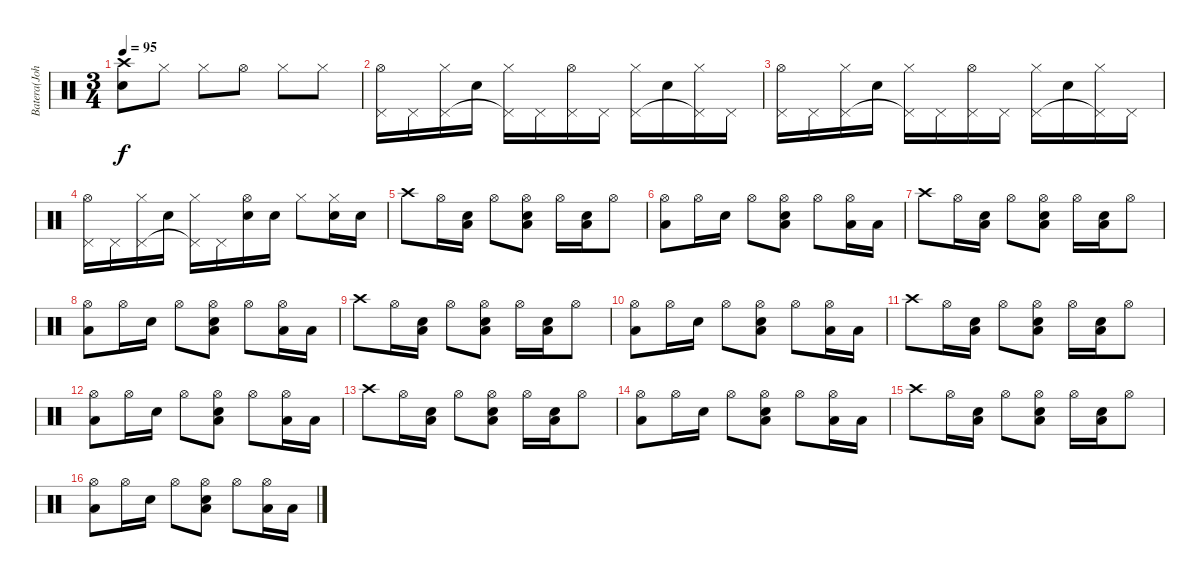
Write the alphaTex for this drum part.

\track ("Batera(John)" "Batera(Joh") {instrument percussion}
\staff {score}
\articulation defaults
\ts (3 4)
\tempo 95
\clef neutral
\ks c
("Crash high (hit)" "Snare (hit) 2").8{dy f} "Hi-Hat (closed)".8 "Hi-Hat (closed)".8 "Hi-Hat (open)".8 "Hi-Hat (closed)".8 "Hi-Hat (closed)".8 |
("Hi-Hat (open)" "Pedal Hi-Hat (hit)").16 "Pedal Hi-Hat (hit)".16 ("Hi-Hat (closed)" "Pedal Hi-Hat (hit)").16 "Snare (hit) 2".16 ("Hi-Hat (closed)" "Pedal Hi-Hat (hit)"{t}).16 "Pedal Hi-Hat (hit)".16 ("Hi-Hat (open)" "Pedal Hi-Hat (hit)").16 "Pedal Hi-Hat (hit)".16 ("Hi-Hat (closed)" "Pedal Hi-Hat (hit)").16 "Snare (hit) 2".16 ("Hi-Hat (closed)" "Pedal Hi-Hat (hit)"{t}).16 "Pedal Hi-Hat (hit)".16 |
("Hi-Hat (open)" "Pedal Hi-Hat (hit)").16 "Pedal Hi-Hat (hit)".16 ("Hi-Hat (closed)" "Pedal Hi-Hat (hit)").16 "Snare (hit) 2".16 ("Hi-Hat (closed)" "Pedal Hi-Hat (hit)"{t}).16 "Pedal Hi-Hat (hit)".16 ("Hi-Hat (open)" "Pedal Hi-Hat (hit)").16 "Pedal Hi-Hat (hit)".16 ("Hi-Hat (closed)" "Pedal Hi-Hat (hit)").16 "Snare (hit) 2".16 ("Hi-Hat (closed)" "Pedal Hi-Hat (hit)"{t}).16 "Pedal Hi-Hat (hit)".16 |
("Hi-Hat (open)" "Pedal Hi-Hat (hit)").16 "Pedal Hi-Hat (hit)".16 ("Hi-Hat (closed)" "Pedal Hi-Hat (hit)").16 "Snare (hit) 2".16 ("Hi-Hat (closed)" "Pedal Hi-Hat (hit)"{t}).16 "Pedal Hi-Hat (hit)".16 ("Hi-Hat (open)" "Snare (hit) 2").16 "Snare (hit) 2".16 "Hi-Hat (closed)".8 ("Hi-Hat (closed)" "Snare (hit) 2").16 "Snare (hit) 2".16 |
"Crash high (hit)".8 "Hi-Hat (open)".16 ("Snare (hit) 2" "Low Tom (hit)").16 "Hi-Hat (open)".8 ("Hi-Hat (open)" "Snare (hit) 2" "Low Tom (hit)").8 "Hi-Hat (open)".16 ("Snare (hit) 2" "Low Tom (hit)").16 "Hi-Hat (open)".8 |
("Hi-Hat (open)" "Low Tom (hit)").8 "Hi-Hat (open)".16 "Snare (hit) 2".16 "Hi-Hat (open)".8 ("Hi-Hat (open)" "Snare (hit) 2" "Low Tom (hit)").8 "Hi-Hat (open)".8 ("Hi-Hat (open)" "Low Tom (hit)").16 "Low Tom (hit)".16 |
"Crash high (hit)".8 "Hi-Hat (open)".16 ("Snare (hit) 2" "Low Tom (hit)").16 "Hi-Hat (open)".8 ("Hi-Hat (open)" "Snare (hit) 2" "Low Tom (hit)").8 "Hi-Hat (open)".16 ("Snare (hit) 2" "Low Tom (hit)").16 "Hi-Hat (open)".8 |
("Hi-Hat (open)" "Low Tom (hit)").8 "Hi-Hat (open)".16 "Snare (hit) 2".16 "Hi-Hat (open)".8 ("Hi-Hat (open)" "Snare (hit) 2" "Low Tom (hit)").8 "Hi-Hat (open)".8 ("Hi-Hat (open)" "Low Tom (hit)").16 "Low Tom (hit)".16 |
"Crash high (hit)".8 "Hi-Hat (open)".16 ("Snare (hit) 2" "Low Tom (hit)").16 "Hi-Hat (open)".8 ("Hi-Hat (open)" "Snare (hit) 2" "Low Tom (hit)").8 "Hi-Hat (open)".16 ("Snare (hit) 2" "Low Tom (hit)").16 "Hi-Hat (open)".8 |
("Hi-Hat (open)" "Low Tom (hit)").8 "Hi-Hat (open)".16 "Snare (hit) 2".16 "Hi-Hat (open)".8 ("Hi-Hat (open)" "Snare (hit) 2" "Low Tom (hit)").8 "Hi-Hat (open)".8 ("Hi-Hat (open)" "Low Tom (hit)").16 "Low Tom (hit)".16 |
"Crash high (hit)".8 "Hi-Hat (open)".16 ("Snare (hit) 2" "Low Tom (hit)").16 "Hi-Hat (open)".8 ("Hi-Hat (open)" "Snare (hit) 2" "Low Tom (hit)").8 "Hi-Hat (open)".16 ("Snare (hit) 2" "Low Tom (hit)").16 "Hi-Hat (open)".8 |
("Hi-Hat (open)" "Low Tom (hit)").8 "Hi-Hat (open)".16 "Snare (hit) 2".16 "Hi-Hat (open)".8 ("Hi-Hat (open)" "Snare (hit) 2" "Low Tom (hit)").8 "Hi-Hat (open)".8 ("Hi-Hat (open)" "Low Tom (hit)").16 "Low Tom (hit)".16 |
"Crash high (hit)".8 "Hi-Hat (open)".16 ("Snare (hit) 2" "Low Tom (hit)").16 "Hi-Hat (open)".8 ("Hi-Hat (open)" "Snare (hit) 2" "Low Tom (hit)").8 "Hi-Hat (open)".16 ("Snare (hit) 2" "Low Tom (hit)").16 "Hi-Hat (open)".8 |
("Hi-Hat (open)" "Low Tom (hit)").8 "Hi-Hat (open)".16 "Snare (hit) 2".16 "Hi-Hat (open)".8 ("Hi-Hat (open)" "Snare (hit) 2" "Low Tom (hit)").8 "Hi-Hat (open)".8 ("Hi-Hat (open)" "Low Tom (hit)").16 "Low Tom (hit)".16 |
"Crash high (hit)".8 "Hi-Hat (open)".16 ("Snare (hit) 2" "Low Tom (hit)").16 "Hi-Hat (open)".8 ("Hi-Hat (open)" "Snare (hit) 2" "Low Tom (hit)").8 "Hi-Hat (open)".16 ("Snare (hit) 2" "Low Tom (hit)").16 "Hi-Hat (open)".8 |
("Hi-Hat (open)" "Low Tom (hit)").8 "Hi-Hat (open)".16 "Snare (hit) 2".16 "Hi-Hat (open)".8 ("Hi-Hat (open)" "Snare (hit) 2" "Low Tom (hit)").8 "Hi-Hat (open)".8 ("Hi-Hat (open)" "Low Tom (hit)").16 "Low Tom (hit)".16
